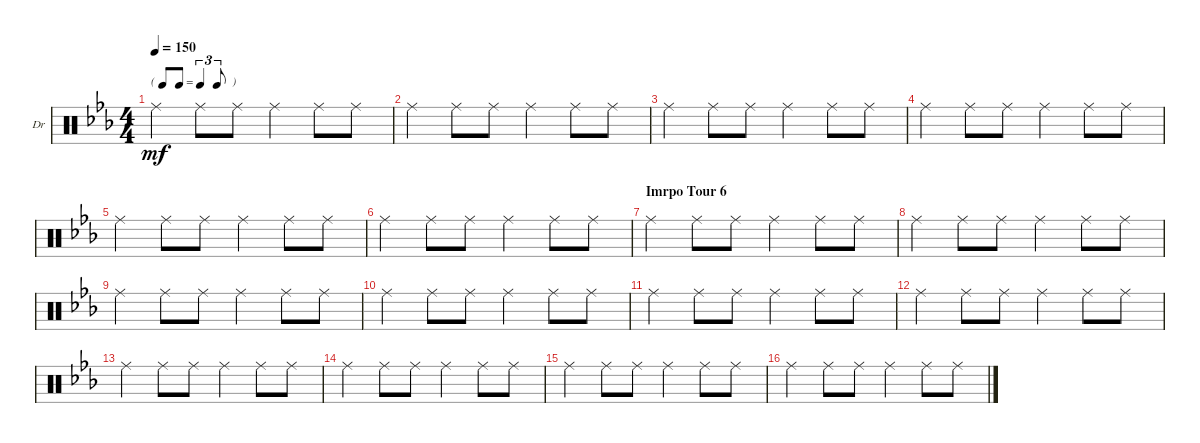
\defaultSystemsLayout 4
\bracketExtendMode nobrackets
\firstSystemTrackNameOrientation horizontal
\otherSystemsTrackNameOrientation horizontal
\chordDiagramsInScore
\track ("Drums" "Dr") {instrument percussion}
\staff {score}
\articulation defaults
\ts (4 4)
\tf triplet8th
\tempo 150
\clef neutral
\ks cminor "Ride (middle)".4{dy mf} "Ride (middle)".8 "Ride (middle)".8 "Ride (middle)".4 "Ride (middle)".8 "Ride (middle)".8
|
"Ride (middle)".4 "Ride (middle)".8 "Ride (middle)".8 "Ride (middle)".4 "Ride (middle)".8 "Ride (middle)".8 |
"Ride (middle)".4 "Ride (middle)".8 "Ride (middle)".8 "Ride (middle)".4 "Ride (middle)".8 "Ride (middle)".8 |
"Ride (middle)".4 "Ride (middle)".8 "Ride (middle)".8 "Ride (middle)".4 "Ride (middle)".8 "Ride (middle)".8 |
"Ride (middle)".4 "Ride (middle)".8 "Ride (middle)".8 "Ride (middle)".4 "Ride (middle)".8 "Ride (middle)".8 |
"Ride (middle)".4 "Ride (middle)".8 "Ride (middle)".8 "Ride (middle)".4 "Ride (middle)".8 "Ride (middle)".8 |
\section ("" "Imrpo Tour 6")
"Ride (middle)".4 "Ride (middle)".8 "Ride (middle)".8 "Ride (middle)".4 "Ride (middle)".8 "Ride (middle)".8 |
"Ride (middle)".4 "Ride (middle)".8 "Ride (middle)".8 "Ride (middle)".4 "Ride (middle)".8 "Ride (middle)".8 |
"Ride (middle)".4 "Ride (middle)".8 "Ride (middle)".8 "Ride (middle)".4 "Ride (middle)".8 "Ride (middle)".8 |
"Ride (middle)".4 "Ride (middle)".8 "Ride (middle)".8 "Ride (middle)".4 "Ride (middle)".8 "Ride (middle)".8 |
"Ride (middle)".4 "Ride (middle)".8 "Ride (middle)".8 "Ride (middle)".4 "Ride (middle)".8 "Ride (middle)".8 |
"Ride (middle)".4 "Ride (middle)".8 "Ride (middle)".8 "Ride (middle)".4 "Ride (middle)".8 "Ride (middle)".8 |
"Ride (middle)".4 "Ride (middle)".8 "Ride (middle)".8 "Ride (middle)".4 "Ride (middle)".8 "Ride (middle)".8 |
"Ride (middle)".4 "Ride (middle)".8 "Ride (middle)".8 "Ride (middle)".4 "Ride (middle)".8 "Ride (middle)".8 |
"Ride (middle)".4 "Ride (middle)".8 "Ride (middle)".8 "Ride (middle)".4 "Ride (middle)".8 "Ride (middle)".8 |
"Ride (middle)".4 "Ride (middle)".8 "Ride (middle)".8 "Ride (middle)".4 "Ride (middle)".8 "Ride (middle)".8
